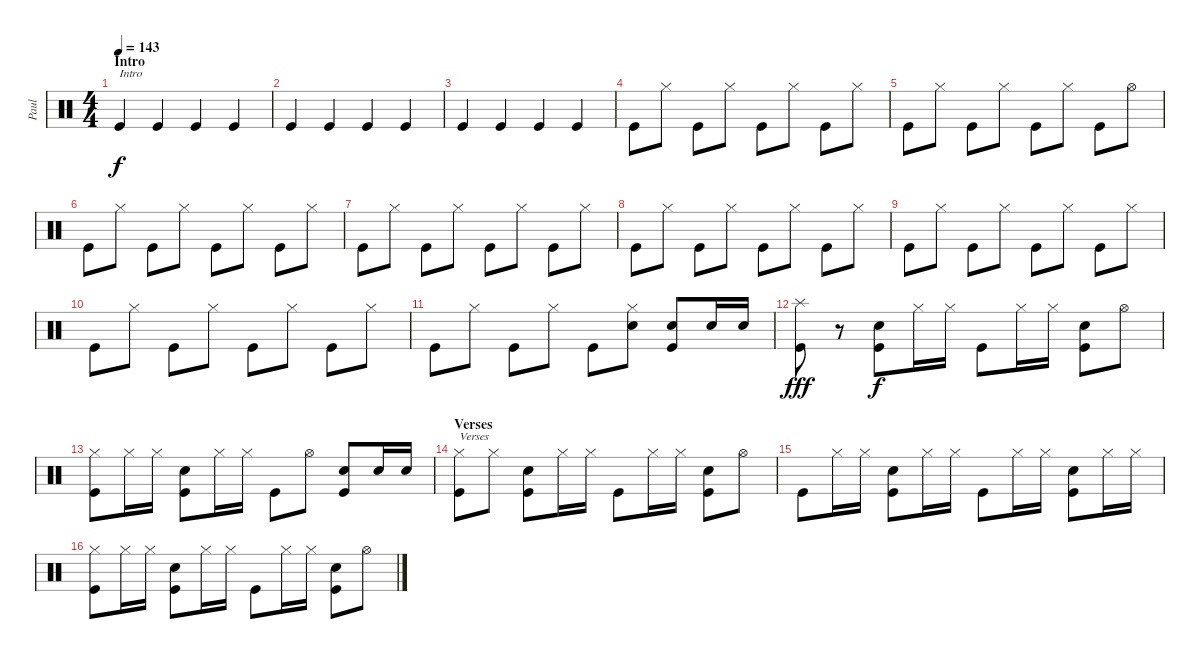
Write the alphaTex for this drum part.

\track ("Paul" "Paul") {instrument percussion}
\staff {score}
\articulation defaults
\ts (4 4)
\section ("" "Intro")
\tempo 143
\clef neutral
\ks c "Kick (hit)".4{txt "Intro" dy f} "Kick (hit)".4 "Kick (hit)".4 "Kick (hit)".4
|
"Kick (hit)".4 "Kick (hit)".4 "Kick (hit)".4 "Kick (hit)".4 |
"Kick (hit)".4 "Kick (hit)".4 "Kick (hit)".4 "Kick (hit)".4 |
"Kick (hit)".8 "Hi-Hat (closed)".8 "Kick (hit)".8 "Hi-Hat (closed)".8 "Kick (hit)".8 "Hi-Hat (closed)".8 "Kick (hit)".8 "Hi-Hat (closed)".8 |
"Kick (hit)".8 "Hi-Hat (closed)".8 "Kick (hit)".8 "Hi-Hat (closed)".8 "Kick (hit)".8 "Hi-Hat (closed)".8 "Kick (hit)".8 "Hi-Hat (open)".8 |
"Kick (hit)".8 "Hi-Hat (closed)".8 "Kick (hit)".8 "Hi-Hat (closed)".8 "Kick (hit)".8 "Hi-Hat (closed)".8 "Kick (hit)".8 "Hi-Hat (closed)".8 |
"Kick (hit)".8 "Hi-Hat (closed)".8 "Kick (hit)".8 "Hi-Hat (closed)".8 "Kick (hit)".8 "Hi-Hat (closed)".8 "Kick (hit)".8 "Hi-Hat (closed)".8 |
"Kick (hit)".8 "Hi-Hat (closed)".8 "Kick (hit)".8 "Hi-Hat (closed)".8 "Kick (hit)".8 "Hi-Hat (closed)".8 "Kick (hit)".8 "Hi-Hat (closed)".8 |
"Kick (hit)".8 "Hi-Hat (closed)".8 "Kick (hit)".8 "Hi-Hat (closed)".8 "Kick (hit)".8 "Hi-Hat (closed)".8 "Kick (hit)".8 "Hi-Hat (closed)".8 |
"Kick (hit)".8 "Hi-Hat (closed)".8 "Kick (hit)".8 "Hi-Hat (closed)".8 "Kick (hit)".8 "Hi-Hat (closed)".8 "Kick (hit)".8 "Hi-Hat (closed)".8 |
"Kick (hit)".8 "Hi-Hat (closed)".8 "Kick (hit)".8 "Hi-Hat (closed)".8 "Kick (hit)".8 ("Hi-Hat (closed)" "Electric Snare (hit)").8 ("Kick (hit)" "Electric Snare (hit)").8 "Electric Snare (hit)".16 "Electric Snare (hit)".16 |
("Splash (hit)" "Kick (hit)").8{dy fff} r.8 ("Kick (hit)" "Electric Snare (hit)").8{dy f} "Hi-Hat (closed)".16 "Hi-Hat (closed)".16 "Kick (hit)".8 "Hi-Hat (closed)".16 "Hi-Hat (closed)".16 ("Kick (hit)" "Electric Snare (hit)").8 "Hi-Hat (open)".8 |
("Hi-Hat (closed)" "Kick (hit)").8 "Hi-Hat (closed)".16 "Hi-Hat (closed)".16 ("Kick (hit)" "Electric Snare (hit)").8 "Hi-Hat (closed)".16 "Hi-Hat (closed)".16 "Kick (hit)".8 "Hi-Hat (open)".8 ("Kick (hit)" "Electric Snare (hit)").8 "Electric Snare (hit)".16 "Electric Snare (hit)".16 |
\section ("" "Verses")
("Hi-Hat (closed)" "Kick (hit)").8{txt "Verses"} "Hi-Hat (closed)".8 ("Kick (hit)" "Electric Snare (hit)").8 "Hi-Hat (closed)".16 "Hi-Hat (closed)".16 "Kick (hit)".8 "Hi-Hat (closed)".16 "Hi-Hat (closed)".16 ("Kick (hit)" "Electric Snare (hit)").8 "Hi-Hat (open)".8 |
"Kick (hit)".8 "Hi-Hat (closed)".16 "Hi-Hat (closed)".16 ("Kick (hit)" "Electric Snare (hit)").8 "Hi-Hat (closed)".16 "Hi-Hat (closed)".16 "Kick (hit)".8 "Hi-Hat (closed)".16 "Hi-Hat (closed)".16 ("Kick (hit)" "Electric Snare (hit)").8 "Hi-Hat (closed)".16 "Hi-Hat (closed)".16 |
("Hi-Hat (closed)" "Kick (hit)").8 "Hi-Hat (closed)".16 "Hi-Hat (closed)".16 ("Kick (hit)" "Electric Snare (hit)").8 "Hi-Hat (closed)".16 "Hi-Hat (closed)".16 "Kick (hit)".8 "Hi-Hat (closed)".16 "Hi-Hat (closed)".16 ("Kick (hit)" "Electric Snare (hit)").8 "Hi-Hat (open)".8
